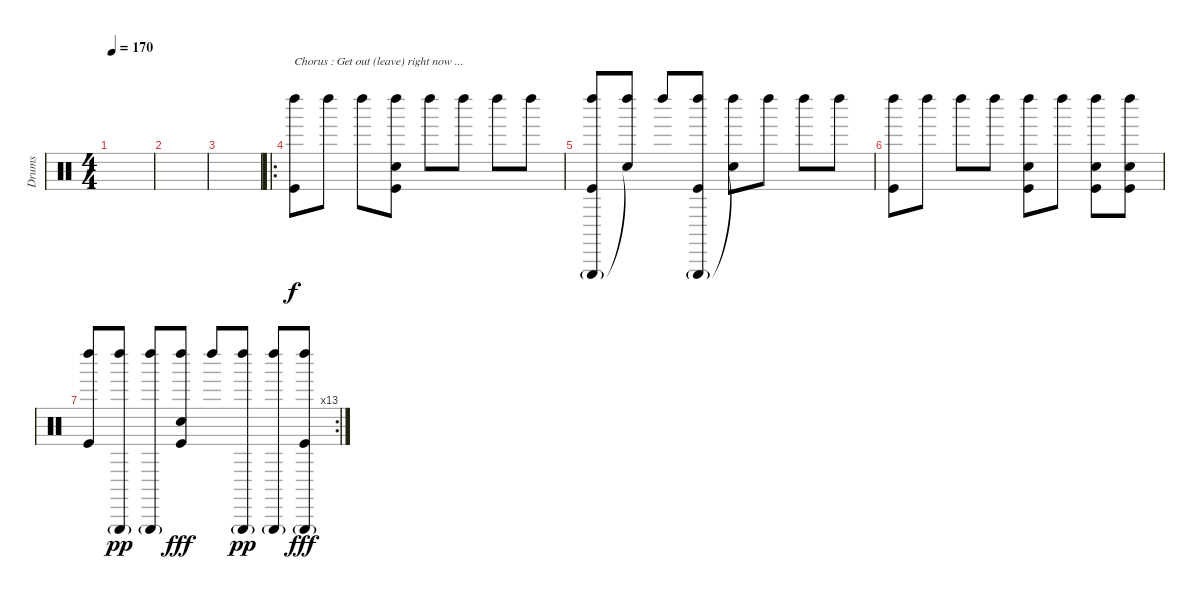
\track ("Drums" "Drums") {instrument percussion}
\staff {score}
\articulation defaults
\ts (4 4)
\tempo 170
\clef neutral
\ks c
|
|
|
\ro
("Left Maraca (hit)" "Kick (hit)").8{txt "Chorus : Get out (leave) right now ..."} "Left Maraca (hit)".8 "Left Maraca (hit)".8 ("Left Maraca (hit)" "Hand Clap (hit)" "Kick (hit)").8 "Left Maraca (hit)".8 "Left Maraca (hit)".8 "Left Maraca (hit)".8 "Left Maraca (hit)".8 |
("Left Maraca (hit)" "Triangle (hit)"{g} "Kick (hit)").8 ("Left Maraca (hit)" "Snare (hit)"{t}).8 "Left Maraca (hit)".8 ("Left Maraca (hit)" "Triangle (hit)"{g} "Kick (hit)").8 ("Left Maraca (hit)" "Snare (hit)"{t}).8 "Left Maraca (hit)".8 "Left Maraca (hit)".8 "Left Maraca (hit)".8 |
("Left Maraca (hit)" "Kick (hit)").8 "Left Maraca (hit)".8 "Left Maraca (hit)".8 "Left Maraca (hit)".8 ("Left Maraca (hit)" "Hand Clap (hit)" "Kick (hit)").8 "Left Maraca (hit)".8 ("Left Maraca (hit)" "Hand Clap (hit)" "Kick (hit)").8 ("Left Maraca (hit)" "Hand Clap (hit)" "Kick (hit)").8 |
\rc 13
("Left Maraca (hit)" "Kick (hit)").8 ("Left Maraca (hit)" "Triangle (hit)"{g}).8{dy pp} ("Left Maraca (hit)" "Triangle (hit)"{g}).8 ("Left Maraca (hit)" "Hand Clap (hit)" "Kick (hit)").8{dy fff} "Left Maraca (hit)".8 ("Left Maraca (hit)" "Triangle (hit)"{g}).8{dy pp} ("Left Maraca (hit)" "Triangle (hit)"{g}).8 ("Left Maraca (hit)" "Triangle (hit)"{g} "Kick (hit)").8{dy fff}
